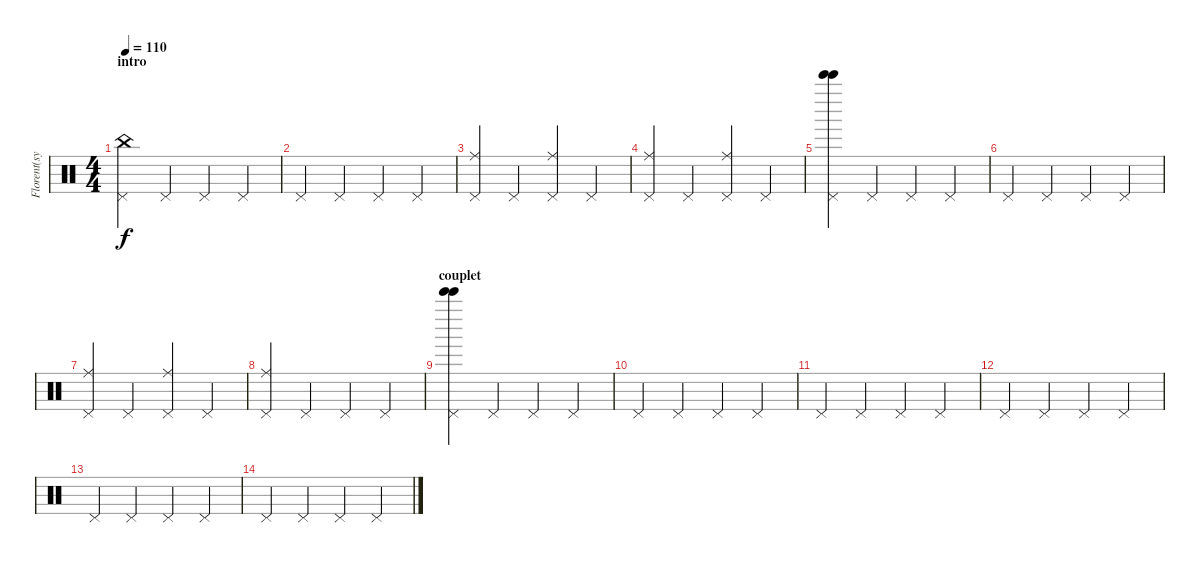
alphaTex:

\track ("Florent(symbales)" "Florent(sy") {instrument percussion}
\staff {score}
\articulation defaults
\ts (4 4)
\section ("" "intro")
\tempo 110
\clef neutral
\ks c
("Pedal Hi-Hat (hit)" "China (hit)").4{dy f} "Pedal Hi-Hat (hit)".4 "Pedal Hi-Hat (hit)".4 "Pedal Hi-Hat (hit)".4 |
"Pedal Hi-Hat (hit)".4 "Pedal Hi-Hat (hit)".4 "Pedal Hi-Hat (hit)".4 "Pedal Hi-Hat (hit)".4 |
("Pedal Hi-Hat (hit)" "Ride (middle)").4 "Pedal Hi-Hat (hit)".4 ("Pedal Hi-Hat (hit)" "Ride (middle)").4 "Pedal Hi-Hat (hit)".4 |
("Pedal Hi-Hat (hit)" "Ride (middle)").4 "Pedal Hi-Hat (hit)".4 ("Pedal Hi-Hat (hit)" "Ride (middle)").4 "Pedal Hi-Hat (hit)".4 |
("Pedal Hi-Hat (hit)" "Bell Tree (hit)" "Bell Tree (hit)").4 "Pedal Hi-Hat (hit)".4 "Pedal Hi-Hat (hit)".4 "Pedal Hi-Hat (hit)".4 |
"Pedal Hi-Hat (hit)".4 "Pedal Hi-Hat (hit)".4 "Pedal Hi-Hat (hit)".4 "Pedal Hi-Hat (hit)".4 |
("Pedal Hi-Hat (hit)" "Ride (middle)").4 "Pedal Hi-Hat (hit)".4 ("Pedal Hi-Hat (hit)" "Ride (middle)").4 "Pedal Hi-Hat (hit)".4 |
("Pedal Hi-Hat (hit)" "Ride (middle)").4 "Pedal Hi-Hat (hit)".4 "Pedal Hi-Hat (hit)".4 "Pedal Hi-Hat (hit)".4 |
\section ("" "couplet")
("Pedal Hi-Hat (hit)" "Bell Tree (hit)" "Bell Tree (hit)").4 "Pedal Hi-Hat (hit)".4 "Pedal Hi-Hat (hit)".4 "Pedal Hi-Hat (hit)".4 |
"Pedal Hi-Hat (hit)".4 "Pedal Hi-Hat (hit)".4 "Pedal Hi-Hat (hit)".4 "Pedal Hi-Hat (hit)".4 |
"Pedal Hi-Hat (hit)".4 "Pedal Hi-Hat (hit)".4 "Pedal Hi-Hat (hit)".4 "Pedal Hi-Hat (hit)".4 |
"Pedal Hi-Hat (hit)".4 "Pedal Hi-Hat (hit)".4 "Pedal Hi-Hat (hit)".4 "Pedal Hi-Hat (hit)".4 |
"Pedal Hi-Hat (hit)".4 "Pedal Hi-Hat (hit)".4 "Pedal Hi-Hat (hit)".4 "Pedal Hi-Hat (hit)".4 |
"Pedal Hi-Hat (hit)".4 "Pedal Hi-Hat (hit)".4 "Pedal Hi-Hat (hit)".4 "Pedal Hi-Hat (hit)".4
